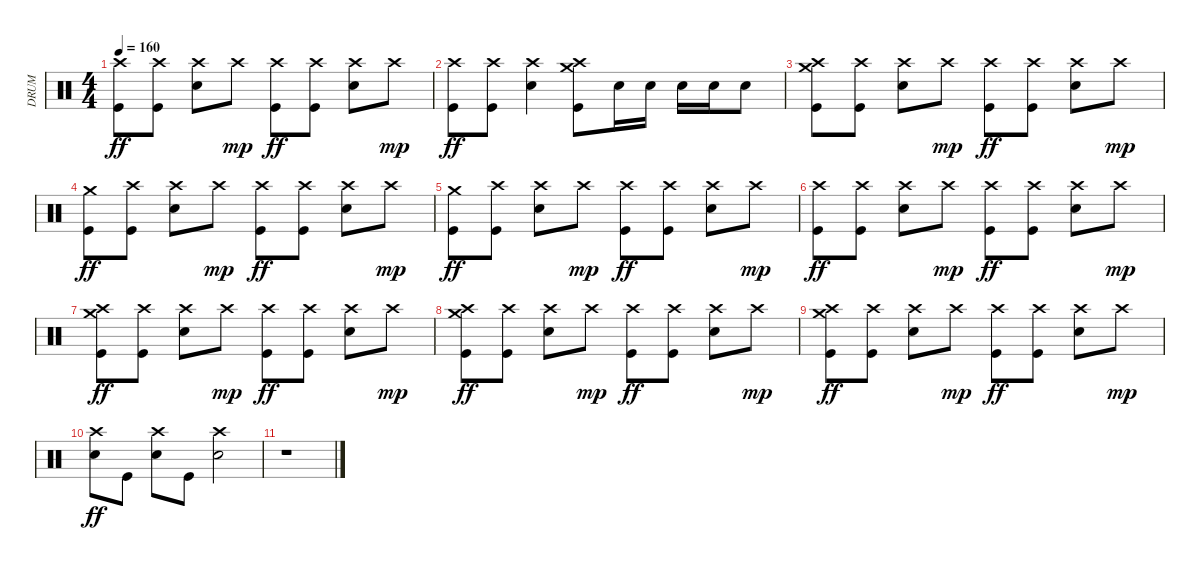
\track ("DRUM" "DRUM") {instrument percussion}
\staff {score}
\articulation defaults
\ts (4 4)
\tempo 160
\clef neutral
\ks c
("Crash high (hit)" "Kick (hit)").8{dy ff} ("Crash high (hit)" "Kick (hit)").8 ("Crash high (hit)" "Electric Snare (hit)").8 "Crash high (hit)".8{dy mp} ("Crash high (hit)" "Kick (hit)").8{dy ff} ("Crash high (hit)" "Kick (hit)").8 ("Crash high (hit)" "Electric Snare (hit)").8 "Crash high (hit)".8{dy mp} |
("Crash high (hit)" "Kick (hit)").8{dy ff} ("Crash high (hit)" "Kick (hit)").8 ("Crash high (hit)" "Electric Snare (hit)").4 ("Crash high (hit)" "Crash medium (hit)" "Kick (hit)").8 "Electric Snare (hit)".16 "Electric Snare (hit)".16 "Electric Snare (hit)".16 "Electric Snare (hit)".16 "Electric Snare (hit)".8 |
("Crash high (hit)" "Crash medium (hit)" "Kick (hit)").8 ("Crash high (hit)" "Kick (hit)").8 ("Crash high (hit)" "Electric Snare (hit)").8 "Crash high (hit)".8{dy mp} ("Crash high (hit)" "Kick (hit)").8{dy ff} ("Crash high (hit)" "Kick (hit)").8 ("Crash high (hit)" "Electric Snare (hit)").8 "Crash high (hit)".8{dy mp} |
("Crash medium (hit)" "Kick (hit)").8{dy ff} ("Crash high (hit)" "Kick (hit)").8 ("Crash high (hit)" "Electric Snare (hit)").8 "Crash high (hit)".8{dy mp} ("Crash high (hit)" "Kick (hit)").8{dy ff} ("Crash high (hit)" "Kick (hit)").8 ("Crash high (hit)" "Electric Snare (hit)").8 "Crash high (hit)".8{dy mp} |
("Crash medium (hit)" "Kick (hit)").8{dy ff} ("Crash high (hit)" "Kick (hit)").8 ("Crash high (hit)" "Electric Snare (hit)").8 "Crash high (hit)".8{dy mp} ("Crash high (hit)" "Kick (hit)").8{dy ff} ("Crash high (hit)" "Kick (hit)").8 ("Crash high (hit)" "Electric Snare (hit)").8 "Crash high (hit)".8{dy mp} |
("Crash high (hit)" "Kick (hit)").8{dy ff} ("Crash high (hit)" "Kick (hit)").8 ("Crash high (hit)" "Electric Snare (hit)").8 "Crash high (hit)".8{dy mp} ("Crash high (hit)" "Kick (hit)").8{dy ff} ("Crash high (hit)" "Kick (hit)").8 ("Crash high (hit)" "Electric Snare (hit)").8 "Crash high (hit)".8{dy mp} |
("Crash high (hit)" "Crash medium (hit)" "Kick (hit)").8{dy ff} ("Crash high (hit)" "Kick (hit)").8 ("Crash high (hit)" "Electric Snare (hit)").8 "Crash high (hit)".8{dy mp} ("Crash high (hit)" "Kick (hit)").8{dy ff} ("Crash high (hit)" "Kick (hit)").8 ("Crash high (hit)" "Electric Snare (hit)").8 "Crash high (hit)".8{dy mp} |
("Crash high (hit)" "Crash medium (hit)" "Kick (hit)").8{dy ff} ("Crash high (hit)" "Kick (hit)").8 ("Crash high (hit)" "Electric Snare (hit)").8 "Crash high (hit)".8{dy mp} ("Crash high (hit)" "Kick (hit)").8{dy ff} ("Crash high (hit)" "Kick (hit)").8 ("Crash high (hit)" "Electric Snare (hit)").8 "Crash high (hit)".8{dy mp} |
("Crash high (hit)" "Crash medium (hit)" "Kick (hit)").8{dy ff} ("Crash high (hit)" "Kick (hit)").8 ("Crash high (hit)" "Electric Snare (hit)").8 "Crash high (hit)".8{dy mp} ("Crash high (hit)" "Kick (hit)").8{dy ff} ("Crash high (hit)" "Kick (hit)").8 ("Crash high (hit)" "Electric Snare (hit)").8 "Crash high (hit)".8{dy mp} |
("Crash high (hit)" "Electric Snare (hit)").8{dy ff} "Kick (hit)".8 ("Crash high (hit)" "Electric Snare (hit)").8 "Kick (hit)".8 ("Crash high (hit)" "Electric Snare (hit)").2 |
r.1
